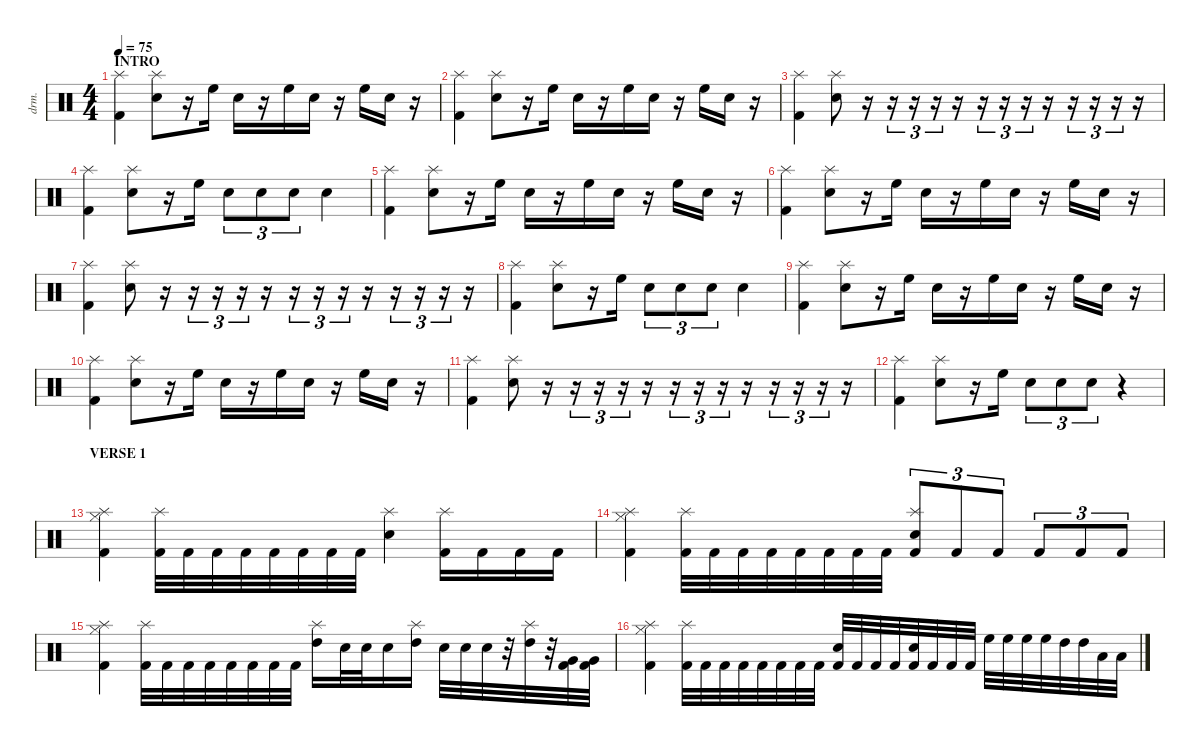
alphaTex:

\defaultSystemsLayout 4
\hideDynamics
\bracketExtendMode nobrackets
\otherSystemsTrackNameOrientation horizontal
\track ("Drumkit" "drm.") {instrument percussion}
\staff {score}
\articulation defaults
\ts (4 4)
\section ("" "INTRO")
\tempo 75
\clef neutral
\ks c
("Kick (hit) 2" "Splash (hit)").4{dy mf beam Down} ("Snare (hit) 2" "Splash (hit)").8{beam Down} r.16{beam Down} "High Floor Tom (hit)".16{beam Down} "Snare (hit) 2".16{beam Down} r.16{beam Down} "High Floor Tom (hit)".16{beam Down} "Snare (hit) 2".16{beam Down} r.16{beam Down} "High Floor Tom (hit)".16{beam Down} "Snare (hit) 2".16{beam Down} r.16{beam Down} |
("Kick (hit) 2" "Splash (hit)").4{beam Down} ("Snare (hit) 2" "Splash (hit)").8{beam Down} r.16{beam Down} "High Floor Tom (hit)".16{beam Down} "Snare (hit) 2".16{beam Down} r.16{beam Down} "High Floor Tom (hit)".16{beam Down} "Snare (hit) 2".16{beam Down} r.16{beam Down} "High Floor Tom (hit)".16{beam Down} "Snare (hit) 2".16{beam Down} r.16{beam Down} |
("Kick (hit) 2" "Splash (hit)").4{beam Down} ("Snare (hit) 2" "Splash (hit)").8{beam Down} r.16{beam Down} r.16{tu (3 2) beam Down} r.16{tu (3 2) beam Down} r.16{tu (3 2) beam Down} r.16{beam Down} r.16{tu (3 2) beam Down} r.16{tu (3 2) beam Down} r.16{tu (3 2) beam Down} r.16{beam Down} r.16{tu (3 2) beam Down} r.16{tu (3 2) beam Down} r.16{tu (3 2) beam Down} r.16{beam Down} |
("Kick (hit) 2" "Splash (hit)").4{beam Down} ("Snare (hit) 2" "Splash (hit)").8{beam Down} r.16{beam Down} "High Floor Tom (hit)".16{beam Down} "Snare (hit) 2".8{tu (3 2) beam Down} "Snare (hit) 2".8{tu (3 2) beam Down} "Snare (hit) 2".8{tu (3 2) beam Down} "Snare (hit) 2".4{beam Down} |
("Kick (hit) 2" "Splash (hit)").4{beam Down} ("Snare (hit) 2" "Splash (hit)").8{beam Down} r.16{beam Down} "High Floor Tom (hit)".16{beam Down} "Snare (hit) 2".16{beam Down} r.16{beam Down} "High Floor Tom (hit)".16{beam Down} "Snare (hit) 2".16{beam Down} r.16{beam Down} "High Floor Tom (hit)".16{beam Down} "Snare (hit) 2".16{beam Down} r.16{beam Down} |
("Kick (hit) 2" "Splash (hit)").4{beam Down} ("Snare (hit) 2" "Splash (hit)").8{beam Down} r.16{beam Down} "High Floor Tom (hit)".16{beam Down} "Snare (hit) 2".16{beam Down} r.16{beam Down} "High Floor Tom (hit)".16{beam Down} "Snare (hit) 2".16{beam Down} r.16{beam Down} "High Floor Tom (hit)".16{beam Down} "Snare (hit) 2".16{beam Down} r.16{beam Down} |
("Kick (hit) 2" "Splash (hit)").4{beam Down} ("Snare (hit) 2" "Splash (hit)").8{beam Down} r.16{beam Down} r.16{tu (3 2) beam Down} r.16{tu (3 2) beam Down} r.16{tu (3 2) beam Down} r.16{beam Down} r.16{tu (3 2) beam Down} r.16{tu (3 2) beam Down} r.16{tu (3 2) beam Down} r.16{beam Down} r.16{tu (3 2) beam Down} r.16{tu (3 2) beam Down} r.16{tu (3 2) beam Down} r.16{beam Down} |
("Kick (hit) 2" "Splash (hit)").4{beam Down} ("Snare (hit) 2" "Splash (hit)").8{beam Down} r.16{beam Down} "High Floor Tom (hit)".16{beam Down} "Snare (hit) 2".8{tu (3 2) beam Down} "Snare (hit) 2".8{tu (3 2) beam Down} "Snare (hit) 2".8{tu (3 2) beam Down} "Snare (hit) 2".4{beam Down} |
("Kick (hit) 2" "Splash (hit)").4{beam Down} ("Snare (hit) 2" "Splash (hit)").8{beam Down} r.16{beam Down} "High Floor Tom (hit)".16{beam Down} "Snare (hit) 2".16{beam Down} r.16{beam Down} "High Floor Tom (hit)".16{beam Down} "Snare (hit) 2".16{beam Down} r.16{beam Down} "High Floor Tom (hit)".16{beam Down} "Snare (hit) 2".16{beam Down} r.16{beam Down} |
("Kick (hit) 2" "Splash (hit)").4{beam Down} ("Snare (hit) 2" "Splash (hit)").8{beam Down} r.16{beam Down} "High Floor Tom (hit)".16{beam Down} "Snare (hit) 2".16{beam Down} r.16{beam Down} "High Floor Tom (hit)".16{beam Down} "Snare (hit) 2".16{beam Down} r.16{beam Down} "High Floor Tom (hit)".16{beam Down} "Snare (hit) 2".16{beam Down} r.16{beam Down} |
("Kick (hit) 2" "Splash (hit)").4{beam Down} ("Snare (hit) 2" "Splash (hit)").8{beam Down} r.16{beam Down} r.16{tu (3 2) beam Down} r.16{tu (3 2) beam Down} r.16{tu (3 2) beam Down} r.16{beam Down} r.16{tu (3 2) beam Down} r.16{tu (3 2) beam Down} r.16{tu (3 2) beam Down} r.16{beam Down} r.16{tu (3 2) beam Down} r.16{tu (3 2) beam Down} r.16{tu (3 2) beam Down} r.16{beam Down} |
("Kick (hit) 2" "Splash (hit)").4{beam Down} ("Snare (hit) 2" "Splash (hit)").8{beam Down} r.16{beam Down} "High Floor Tom (hit)".16{beam Down} "Snare (hit) 2".8{tu (3 2) beam Down} "Snare (hit) 2".8{tu (3 2) beam Down} "Snare (hit) 2".8{tu (3 2) beam Down} r.4{beam Down} |
\section ("" "VERSE 1")
("Splash (hit)" "Kick (hit) 2" "Hi-Hat (closed)").4{beam Down} ("Splash (hit)" "Kick (hit) 2").32{beam Down} "Kick (hit) 2".32{beam Down} "Kick (hit) 2".32{beam Down} "Kick (hit) 2".32{beam Down} "Kick (hit) 2".32{beam Down} "Kick (hit) 2".32{beam Down} "Kick (hit) 2".32{beam Down} "Kick (hit) 2".32{beam Down} ("Splash (hit)" "Snare (hit) 2").4{beam Down} ("Splash (hit)" "Kick (hit) 2").16{beam Down} "Kick (hit) 2".16{beam Down} "Kick (hit) 2".16{beam Down} "Kick (hit) 2".16{beam Down} |
("Splash (hit)" "Kick (hit) 2" "Hi-Hat (closed)").4{beam Down} ("Splash (hit)" "Kick (hit) 2").32{beam Down} "Kick (hit) 2".32{beam Down} "Kick (hit) 2".32{beam Down} "Kick (hit) 2".32{beam Down} "Kick (hit) 2".32{beam Down} "Kick (hit) 2".32{beam Down} "Kick (hit) 2".32{beam Down} "Kick (hit) 2".32{beam Down} ("Kick (hit) 2" "Splash (hit)" "Snare (hit) 2").8{tu (3 2) beam Up} "Kick (hit) 2".8{tu (3 2) beam Up} "Kick (hit) 2".8{tu (3 2) beam Up} "Kick (hit) 2".8{tu (3 2) beam Up} "Kick (hit) 2".8{tu (3 2) beam Up} "Kick (hit) 2".8{tu (3 2) beam Up} |
("Splash (hit)" "Kick (hit) 2" "Hi-Hat (closed)").4{beam Down} ("Splash (hit)" "Kick (hit) 2").32{beam Down} "Kick (hit) 2".32{beam Down} "Kick (hit) 2".32{beam Down} "Kick (hit) 2".32{beam Down} "Kick (hit) 2".32{beam Down} "Kick (hit) 2".32{beam Down} "Kick (hit) 2".32{beam Down} "Kick (hit) 2".32{beam Down} ("High Tom (hit)" "Splash (hit)").16{beam Down} "Snare (hit) 2".32{beam Down} "Snare (hit) 2".32{beam Down} "Snare (hit) 2".16{beam Down} ("High Tom (hit)" "Splash (hit)").16{beam Down} "Snare (hit) 2".32{beam Down} "Snare (hit) 2".32{beam Down} "Snare (hit) 2".32{beam Down} r.32{beam Down} ("High Tom (hit)" "Splash (hit)").32{beam Down} r.32{beam Down} ("Very Low Tom (hit)" "Kick (hit) 2").32{beam Down} ("Very Low Tom (hit)" "Kick (hit) 2").32{beam Down} |
("Splash (hit)" "Kick (hit) 2" "Hi-Hat (closed)").4{beam Down} ("Splash (hit)" "Kick (hit) 2").32{beam Down} "Kick (hit) 2".32{beam Down} "Kick (hit) 2".32{beam Down} "Kick (hit) 2".32{beam Down} "Kick (hit) 2".32{beam Down} "Kick (hit) 2".32{beam Down} "Kick (hit) 2".32{beam Down} "Kick (hit) 2".32{beam Down} ("Kick (hit) 2" "Snare (hit) 2").32{beam Up} "Kick (hit) 2".32{beam Up} "Kick (hit) 2".32{beam Up} "Kick (hit) 2".32{beam Up} ("Kick (hit) 2" "Snare (hit) 2").32{beam Up} "Kick (hit) 2".32{beam Up} "Kick (hit) 2".32{beam Up} "Kick (hit) 2".32{beam Up} "High Floor Tom (hit)".32{beam Down} "High Floor Tom (hit)".32{beam Down} "High Floor Tom (hit)".32{beam Down} "High Floor Tom (hit)".32{beam Down} "High Tom (hit)".32{beam Down} "High Tom (hit)".32{beam Down} "Low Tom (hit)".32{beam Down} "Low Tom (hit)".32{beam Down}
